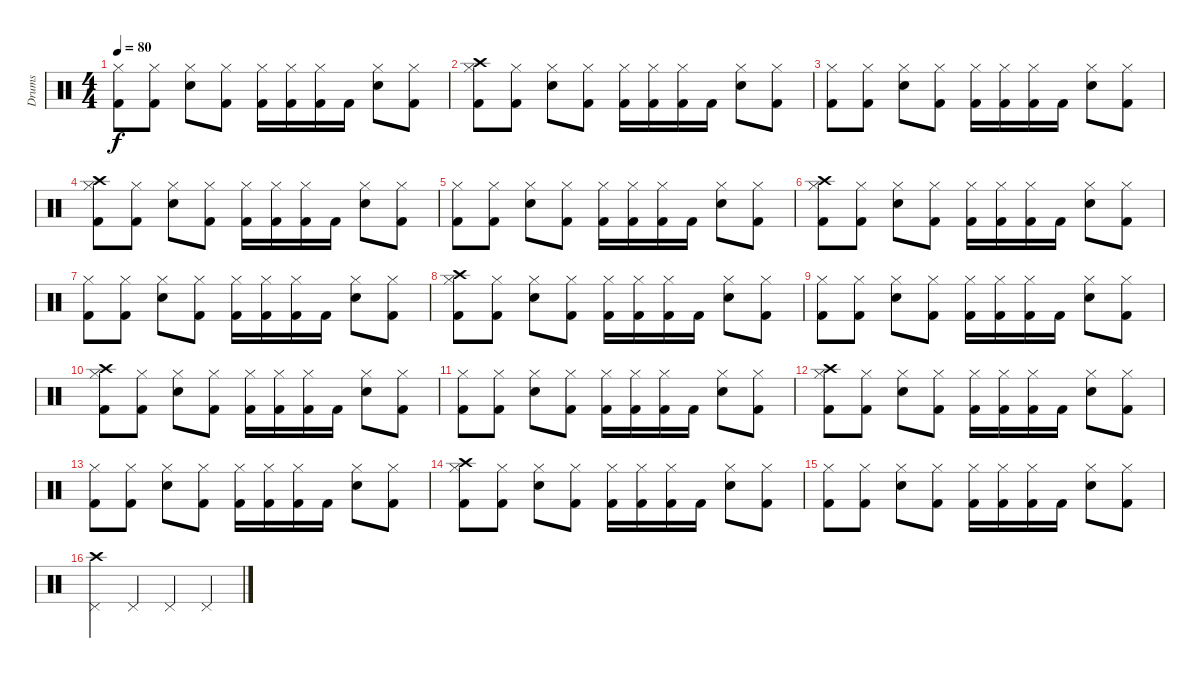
\track ("Drums" "Drums") {instrument percussion}
\staff {score}
\articulation defaults
\ts (4 4)
\tempo 80
\clef neutral
\ks c
("Hi-Hat (closed)" "Kick (hit) 2").8{dy f} ("Hi-Hat (closed)" "Kick (hit) 2").8 ("Hi-Hat (closed)" "Snare (hit) 2").8 ("Hi-Hat (closed)" "Kick (hit) 2").8 ("Hi-Hat (closed)" "Kick (hit) 2").16 ("Hi-Hat (closed)" "Kick (hit) 2").16 ("Hi-Hat (closed)" "Kick (hit) 2").16 "Kick (hit) 2".16 ("Hi-Hat (closed)" "Snare (hit) 2").8 ("Hi-Hat (closed)" "Kick (hit) 2").8 |
("Crash high (hit)" "Hi-Hat (closed)" "Kick (hit) 2").8 ("Hi-Hat (closed)" "Kick (hit) 2").8 ("Hi-Hat (closed)" "Snare (hit) 2").8 ("Hi-Hat (closed)" "Kick (hit) 2").8 ("Hi-Hat (closed)" "Kick (hit) 2").16 ("Hi-Hat (closed)" "Kick (hit) 2").16 ("Hi-Hat (closed)" "Kick (hit) 2").16 "Kick (hit) 2".16 ("Hi-Hat (closed)" "Snare (hit) 2").8 ("Hi-Hat (closed)" "Kick (hit) 2").8 |
("Hi-Hat (closed)" "Kick (hit) 2").8 ("Hi-Hat (closed)" "Kick (hit) 2").8 ("Hi-Hat (closed)" "Snare (hit) 2").8 ("Hi-Hat (closed)" "Kick (hit) 2").8 ("Hi-Hat (closed)" "Kick (hit) 2").16 ("Hi-Hat (closed)" "Kick (hit) 2").16 ("Hi-Hat (closed)" "Kick (hit) 2").16 "Kick (hit) 2".16 ("Hi-Hat (closed)" "Snare (hit) 2").8 ("Hi-Hat (closed)" "Kick (hit) 2").8 |
("Crash high (hit)" "Hi-Hat (closed)" "Kick (hit) 2").8 ("Hi-Hat (closed)" "Kick (hit) 2").8 ("Hi-Hat (closed)" "Snare (hit) 2").8 ("Hi-Hat (closed)" "Kick (hit) 2").8 ("Hi-Hat (closed)" "Kick (hit) 2").16 ("Hi-Hat (closed)" "Kick (hit) 2").16 ("Hi-Hat (closed)" "Kick (hit) 2").16 "Kick (hit) 2".16 ("Hi-Hat (closed)" "Snare (hit) 2").8 ("Hi-Hat (closed)" "Kick (hit) 2").8 |
("Hi-Hat (closed)" "Kick (hit) 2").8 ("Hi-Hat (closed)" "Kick (hit) 2").8 ("Hi-Hat (closed)" "Snare (hit) 2").8 ("Hi-Hat (closed)" "Kick (hit) 2").8 ("Hi-Hat (closed)" "Kick (hit) 2").16 ("Hi-Hat (closed)" "Kick (hit) 2").16 ("Hi-Hat (closed)" "Kick (hit) 2").16 "Kick (hit) 2".16 ("Hi-Hat (closed)" "Snare (hit) 2").8 ("Hi-Hat (closed)" "Kick (hit) 2").8 |
("Crash high (hit)" "Hi-Hat (closed)" "Kick (hit) 2").8 ("Hi-Hat (closed)" "Kick (hit) 2").8 ("Hi-Hat (closed)" "Snare (hit) 2").8 ("Hi-Hat (closed)" "Kick (hit) 2").8 ("Hi-Hat (closed)" "Kick (hit) 2").16 ("Hi-Hat (closed)" "Kick (hit) 2").16 ("Hi-Hat (closed)" "Kick (hit) 2").16 "Kick (hit) 2".16 ("Hi-Hat (closed)" "Snare (hit) 2").8 ("Hi-Hat (closed)" "Kick (hit) 2").8 |
("Hi-Hat (closed)" "Kick (hit) 2").8 ("Hi-Hat (closed)" "Kick (hit) 2").8 ("Hi-Hat (closed)" "Snare (hit) 2").8 ("Hi-Hat (closed)" "Kick (hit) 2").8 ("Hi-Hat (closed)" "Kick (hit) 2").16 ("Hi-Hat (closed)" "Kick (hit) 2").16 ("Hi-Hat (closed)" "Kick (hit) 2").16 "Kick (hit) 2".16 ("Hi-Hat (closed)" "Snare (hit) 2").8 ("Hi-Hat (closed)" "Kick (hit) 2").8 |
("Crash high (hit)" "Hi-Hat (closed)" "Kick (hit) 2").8 ("Hi-Hat (closed)" "Kick (hit) 2").8 ("Hi-Hat (closed)" "Snare (hit) 2").8 ("Hi-Hat (closed)" "Kick (hit) 2").8 ("Hi-Hat (closed)" "Kick (hit) 2").16 ("Hi-Hat (closed)" "Kick (hit) 2").16 ("Hi-Hat (closed)" "Kick (hit) 2").16 "Kick (hit) 2".16 ("Hi-Hat (closed)" "Snare (hit) 2").8 ("Hi-Hat (closed)" "Kick (hit) 2").8 |
("Hi-Hat (closed)" "Kick (hit) 2").8 ("Hi-Hat (closed)" "Kick (hit) 2").8 ("Hi-Hat (closed)" "Snare (hit) 2").8 ("Hi-Hat (closed)" "Kick (hit) 2").8 ("Hi-Hat (closed)" "Kick (hit) 2").16 ("Hi-Hat (closed)" "Kick (hit) 2").16 ("Hi-Hat (closed)" "Kick (hit) 2").16 "Kick (hit) 2".16 ("Hi-Hat (closed)" "Snare (hit) 2").8 ("Hi-Hat (closed)" "Kick (hit) 2").8 |
("Crash high (hit)" "Hi-Hat (closed)" "Kick (hit) 2").8 ("Hi-Hat (closed)" "Kick (hit) 2").8 ("Hi-Hat (closed)" "Snare (hit) 2").8 ("Hi-Hat (closed)" "Kick (hit) 2").8 ("Hi-Hat (closed)" "Kick (hit) 2").16 ("Hi-Hat (closed)" "Kick (hit) 2").16 ("Hi-Hat (closed)" "Kick (hit) 2").16 "Kick (hit) 2".16 ("Hi-Hat (closed)" "Snare (hit) 2").8 ("Hi-Hat (closed)" "Kick (hit) 2").8 |
("Hi-Hat (closed)" "Kick (hit) 2").8 ("Hi-Hat (closed)" "Kick (hit) 2").8 ("Hi-Hat (closed)" "Snare (hit) 2").8 ("Hi-Hat (closed)" "Kick (hit) 2").8 ("Hi-Hat (closed)" "Kick (hit) 2").16 ("Hi-Hat (closed)" "Kick (hit) 2").16 ("Hi-Hat (closed)" "Kick (hit) 2").16 "Kick (hit) 2".16 ("Hi-Hat (closed)" "Snare (hit) 2").8 ("Hi-Hat (closed)" "Kick (hit) 2").8 |
("Crash high (hit)" "Hi-Hat (closed)" "Kick (hit) 2").8 ("Hi-Hat (closed)" "Kick (hit) 2").8 ("Hi-Hat (closed)" "Snare (hit) 2").8 ("Hi-Hat (closed)" "Kick (hit) 2").8 ("Hi-Hat (closed)" "Kick (hit) 2").16 ("Hi-Hat (closed)" "Kick (hit) 2").16 ("Hi-Hat (closed)" "Kick (hit) 2").16 "Kick (hit) 2".16 ("Hi-Hat (closed)" "Snare (hit) 2").8 ("Hi-Hat (closed)" "Kick (hit) 2").8 |
("Hi-Hat (closed)" "Kick (hit) 2").8 ("Hi-Hat (closed)" "Kick (hit) 2").8 ("Hi-Hat (closed)" "Snare (hit) 2").8 ("Hi-Hat (closed)" "Kick (hit) 2").8 ("Hi-Hat (closed)" "Kick (hit) 2").16 ("Hi-Hat (closed)" "Kick (hit) 2").16 ("Hi-Hat (closed)" "Kick (hit) 2").16 "Kick (hit) 2".16 ("Hi-Hat (closed)" "Snare (hit) 2").8 ("Hi-Hat (closed)" "Kick (hit) 2").8 |
("Crash high (hit)" "Hi-Hat (closed)" "Kick (hit) 2").8 ("Hi-Hat (closed)" "Kick (hit) 2").8 ("Hi-Hat (closed)" "Snare (hit) 2").8 ("Hi-Hat (closed)" "Kick (hit) 2").8 ("Hi-Hat (closed)" "Kick (hit) 2").16 ("Hi-Hat (closed)" "Kick (hit) 2").16 ("Hi-Hat (closed)" "Kick (hit) 2").16 "Kick (hit) 2".16 ("Hi-Hat (closed)" "Snare (hit) 2").8 ("Hi-Hat (closed)" "Kick (hit) 2").8 |
("Hi-Hat (closed)" "Kick (hit) 2").8 ("Hi-Hat (closed)" "Kick (hit) 2").8 ("Hi-Hat (closed)" "Snare (hit) 2").8 ("Hi-Hat (closed)" "Kick (hit) 2").8 ("Hi-Hat (closed)" "Kick (hit) 2").16 ("Hi-Hat (closed)" "Kick (hit) 2").16 ("Hi-Hat (closed)" "Kick (hit) 2").16 "Kick (hit) 2".16 ("Hi-Hat (closed)" "Snare (hit) 2").8 ("Hi-Hat (closed)" "Kick (hit) 2").8 |
("Crash high (hit)" "Pedal Hi-Hat (hit)").4 "Pedal Hi-Hat (hit)".4 "Pedal Hi-Hat (hit)".4 "Pedal Hi-Hat (hit)".4
